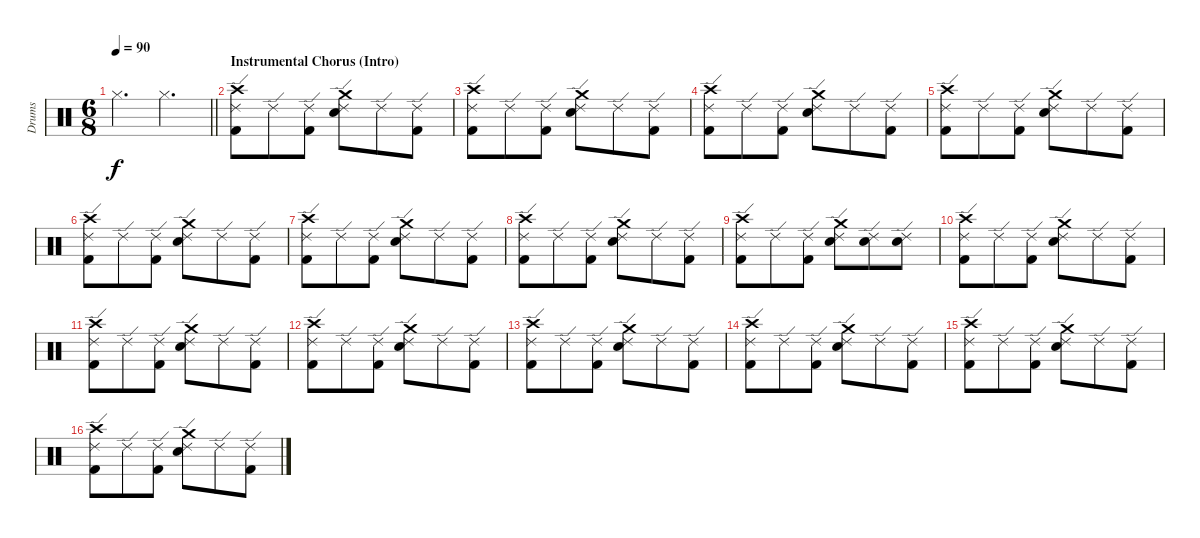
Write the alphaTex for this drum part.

\track ("Drums" "Drums") {instrument percussion}
\staff {score}
\articulation defaults
\ts (6 8)
\tempo 90
\clef neutral
\barLineRight lightlight
\ks c "Hi-Hat (closed)".4{d dy f} "Hi-Hat (closed)".4{d}
|
\section ("" "Instrumental Chorus (Intro)")
("Ride (edge) 2" "Kick (hit) 2" "Crash high (hit)").8 "Ride (edge) 2".8 ("Ride (edge) 2" "Kick (hit) 2").8 ("Ride (edge) 2" "Snare (hit) 2" "Crash medium (hit)").8 "Ride (edge) 2".8 ("Ride (edge) 2" "Kick (hit) 2").8 |
("Ride (edge) 2" "Kick (hit) 2" "Crash high (hit)").8 "Ride (edge) 2".8 ("Ride (edge) 2" "Kick (hit) 2").8 ("Ride (edge) 2" "Snare (hit) 2" "Crash medium (hit)").8 "Ride (edge) 2".8 ("Ride (edge) 2" "Kick (hit) 2").8 |
("Ride (edge) 2" "Kick (hit) 2" "Crash high (hit)").8 "Ride (edge) 2".8 ("Ride (edge) 2" "Kick (hit) 2").8 ("Ride (edge) 2" "Snare (hit) 2" "Crash medium (hit)").8 "Ride (edge) 2".8 ("Ride (edge) 2" "Kick (hit) 2").8 |
("Ride (edge) 2" "Kick (hit) 2" "Crash high (hit)").8 "Ride (edge) 2".8 ("Ride (edge) 2" "Kick (hit) 2").8 ("Ride (edge) 2" "Snare (hit) 2" "Crash medium (hit)").8 "Ride (edge) 2".8 ("Ride (edge) 2" "Kick (hit) 2").8 |
("Ride (edge) 2" "Kick (hit) 2" "Crash high (hit)").8 "Ride (edge) 2".8 ("Ride (edge) 2" "Kick (hit) 2").8 ("Ride (edge) 2" "Snare (hit) 2" "Crash medium (hit)").8 "Ride (edge) 2".8 ("Ride (edge) 2" "Kick (hit) 2").8 |
("Ride (edge) 2" "Kick (hit) 2" "Crash high (hit)").8 "Ride (edge) 2".8 ("Ride (edge) 2" "Kick (hit) 2").8 ("Ride (edge) 2" "Snare (hit) 2" "Crash medium (hit)").8 "Ride (edge) 2".8 ("Ride (edge) 2" "Kick (hit) 2").8 |
("Ride (edge) 2" "Kick (hit) 2" "Crash high (hit)").8 "Ride (edge) 2".8 ("Ride (edge) 2" "Kick (hit) 2").8 ("Ride (edge) 2" "Snare (hit) 2" "Crash medium (hit)").8 "Ride (edge) 2".8 ("Ride (edge) 2" "Kick (hit) 2").8 |
("Ride (edge) 2" "Kick (hit) 2" "Crash high (hit)").8 "Ride (edge) 2".8 ("Ride (edge) 2" "Kick (hit) 2").8 ("Ride (edge) 2" "Snare (hit) 2" "Crash medium (hit)").8 ("Ride (edge) 2" "Snare (hit) 2").8 ("Ride (edge) 2" "Snare (hit) 2").8 |
("Ride (edge) 2" "Kick (hit) 2" "Crash high (hit)").8 "Ride (edge) 2".8 ("Ride (edge) 2" "Kick (hit) 2").8 ("Ride (edge) 2" "Snare (hit) 2" "Crash medium (hit)").8 "Ride (edge) 2".8 ("Ride (edge) 2" "Kick (hit) 2").8 |
("Ride (edge) 2" "Kick (hit) 2" "Crash high (hit)").8 "Ride (edge) 2".8 ("Ride (edge) 2" "Kick (hit) 2").8 ("Ride (edge) 2" "Snare (hit) 2" "Crash medium (hit)").8 "Ride (edge) 2".8 ("Ride (edge) 2" "Kick (hit) 2").8 |
("Ride (edge) 2" "Kick (hit) 2" "Crash high (hit)").8 "Ride (edge) 2".8 ("Ride (edge) 2" "Kick (hit) 2").8 ("Ride (edge) 2" "Snare (hit) 2" "Crash medium (hit)").8 "Ride (edge) 2".8 ("Ride (edge) 2" "Kick (hit) 2").8 |
("Ride (edge) 2" "Kick (hit) 2" "Crash high (hit)").8 "Ride (edge) 2".8 ("Ride (edge) 2" "Kick (hit) 2").8 ("Ride (edge) 2" "Snare (hit) 2" "Crash medium (hit)").8 "Ride (edge) 2".8 ("Ride (edge) 2" "Kick (hit) 2").8 |
("Ride (edge) 2" "Kick (hit) 2" "Crash high (hit)").8 "Ride (edge) 2".8 ("Ride (edge) 2" "Kick (hit) 2").8 ("Ride (edge) 2" "Snare (hit) 2" "Crash medium (hit)").8 "Ride (edge) 2".8 ("Ride (edge) 2" "Kick (hit) 2").8 |
("Ride (edge) 2" "Kick (hit) 2" "Crash high (hit)").8 "Ride (edge) 2".8 ("Ride (edge) 2" "Kick (hit) 2").8 ("Ride (edge) 2" "Snare (hit) 2" "Crash medium (hit)").8 "Ride (edge) 2".8 ("Ride (edge) 2" "Kick (hit) 2").8 |
("Ride (edge) 2" "Kick (hit) 2" "Crash high (hit)").8 "Ride (edge) 2".8 ("Ride (edge) 2" "Kick (hit) 2").8 ("Ride (edge) 2" "Snare (hit) 2" "Crash medium (hit)").8 "Ride (edge) 2".8 ("Ride (edge) 2" "Kick (hit) 2").8
